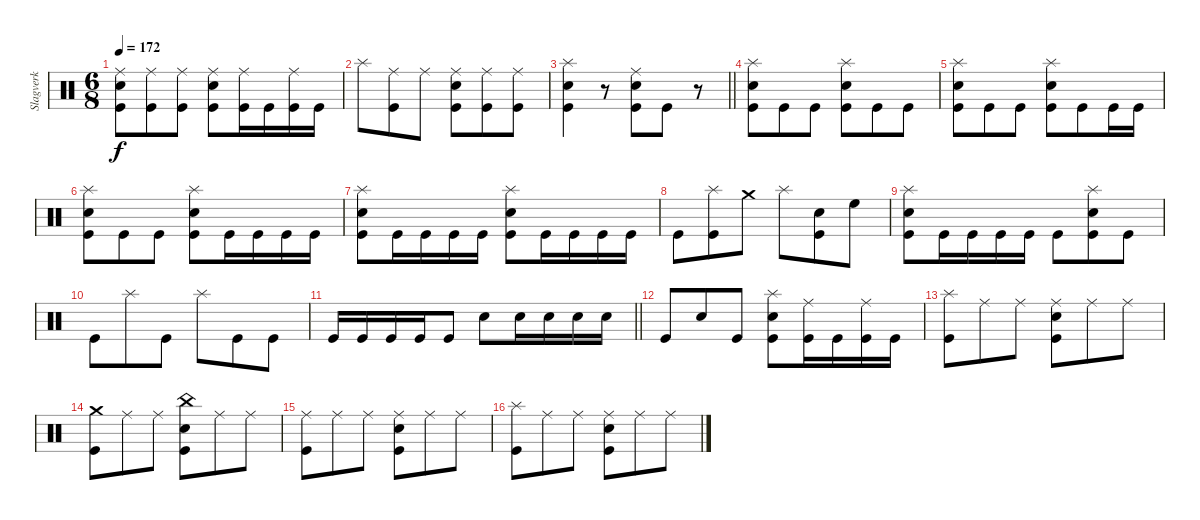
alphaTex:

\track ("Slagverk" "Slagverk") {instrument percussion}
\staff {score}
\articulation defaults
\ts (6 8)
\tempo 172
\clef neutral
\ks c
("Ride (middle)" "Snare (hit) 2" "Kick (hit)").8{dy f} ("Ride (middle)" "Kick (hit)").8 ("Ride (middle)" "Kick (hit)").8 ("Ride (middle)" "Snare (hit) 2" "Kick (hit)").8 ("Ride (middle)" "Kick (hit)").16 "Kick (hit)".16 ("Ride (middle)" "Kick (hit)").16 "Kick (hit)".16 |
"Splash (hit)".8 ("Ride (middle)" "Kick (hit)").8 "Ride (middle)".8 ("Ride (middle)" "Snare (hit) 2" "Kick (hit)").8 ("Ride (middle)" "Kick (hit)").8 ("Ride (middle)" "Kick (hit)").8 |
\barLineRight lightlight
("Splash (hit)" "Snare (hit) 2" "Kick (hit)").4 r.8 ("Ride (middle)" "Snare (hit) 2" "Kick (hit)").8 "Kick (hit)".8 r.8 |
("Splash (hit)" "Snare (hit) 2" "Kick (hit)").8 "Kick (hit)".8 "Kick (hit)".8 ("Splash (hit)" "Snare (hit) 2" "Kick (hit)").8 "Kick (hit)".8 "Kick (hit)".8 |
("Splash (hit)" "Snare (hit) 2" "Kick (hit)").8 "Kick (hit)".8 "Kick (hit)".8 ("Splash (hit)" "Snare (hit) 2" "Kick (hit)").8 "Kick (hit)".8 "Kick (hit)".16 "Kick (hit)".16 |
("Splash (hit)" "Snare (hit) 2" "Kick (hit)").8 "Kick (hit)".8 "Kick (hit)".8 ("Splash (hit)" "Snare (hit) 2" "Kick (hit)").8 "Kick (hit)".16 "Kick (hit)".16 "Kick (hit)".16 "Kick (hit)".16 |
("Splash (hit)" "Snare (hit) 2" "Kick (hit)").8 "Kick (hit)".16 "Kick (hit)".16 "Kick (hit)".16 "Kick (hit)".16 ("Splash (hit)" "Snare (hit) 2" "Kick (hit)").8 "Kick (hit)".16 "Kick (hit)".16 "Kick (hit)".16 "Kick (hit)".16 |
"Kick (hit)".8 ("Splash (hit)" "Kick (hit)").8 "Crash medium (hit)".8 "Splash (hit)".8 ("Snare (hit) 2" "Kick (hit)").8 "High Floor Tom (hit)".8 |
("Splash (hit)" "Snare (hit) 2" "Kick (hit)").8 "Kick (hit)".16 "Kick (hit)".16 "Kick (hit)".16 "Kick (hit)".16 "Kick (hit)".8 ("Splash (hit)" "Snare (hit) 2" "Kick (hit)").8 "Kick (hit)".8 |
"Kick (hit)".8 "Splash (hit)".8 "Kick (hit)".8 "Splash (hit)".8 "Kick (hit)".8 "Kick (hit)".8 |
\barLineRight lightlight "Kick (hit)".16 "Kick (hit)".16 "Kick (hit)".16 "Kick (hit)".16 "Kick (hit)".8 "Snare (hit) 2".8 "Snare (hit) 2".16 "Snare (hit) 2".16 "Snare (hit) 2".16 "Snare (hit) 2".16
|
"Kick (hit)".8 "Snare (hit) 2".8 "Kick (hit)".8 ("Splash (hit)" "Snare (hit) 2" "Kick (hit)").8 ("Ride (middle)" "Kick (hit)").16 "Kick (hit)".16 ("Ride (middle)" "Kick (hit)").16 "Kick (hit)".16 |
("Splash (hit)" "Kick (hit)").8 "Ride (middle)".8 "Ride (middle)".8 ("Ride (middle)" "Snare (hit) 2" "Kick (hit)").8 "Ride (middle)".8 "Ride (middle)".8 |
("Crash medium (hit)" "Kick (hit)").8 "Ride (middle)".8 "Ride (middle)".8 ("China (hit)" "Snare (hit) 2" "Kick (hit)").8 "Ride (middle)".8 "Ride (middle)".8 |
("Ride (middle)" "Kick (hit)").8 "Ride (middle)".8 "Ride (middle)".8 ("Ride (middle)" "Snare (hit) 2" "Kick (hit)").8 "Ride (middle)".8 "Ride (middle)".8 |
("Splash (hit)" "Kick (hit)").8 "Ride (middle)".8 "Ride (middle)".8 ("Ride (middle)" "Snare (hit) 2" "Kick (hit)").8 "Ride (middle)".8 "Ride (middle)".8
